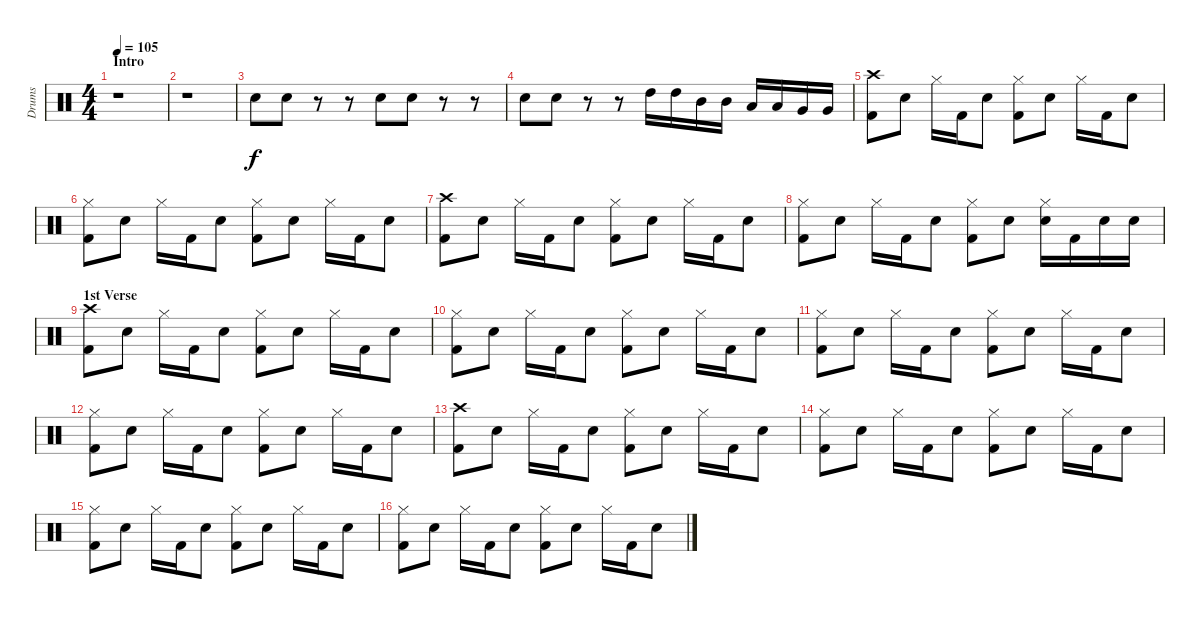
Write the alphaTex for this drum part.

\track ("Drums" "Drums") {instrument percussion}
\staff {score}
\articulation defaults
\ts (4 4)
\section ("" "Intro")
\tempo 105
\clef neutral
\ks c
r.1{dy f} |
r.1 |
"Snare (hit) 2".8 "Snare (hit) 2".8 r.8 r.8 "Snare (hit) 2".8 "Snare (hit) 2".8 r.8 r.8 |
"Snare (hit) 2".8 "Snare (hit) 2".8 r.8 r.8 "High Tom (hit)".16 "High Tom (hit)".16 "Mid Tom (hit)".16 "Mid Tom (hit)".16 "Low Tom (hit)".16 "Low Tom (hit)".16 "Very Low Tom (hit)".16 "Very Low Tom (hit)".16 |
("Crash high (hit)" "Kick (hit) 2").8 "Snare (hit) 2".8 "Hi-Hat (closed)".16 "Kick (hit) 2".16 "Snare (hit) 2".8 ("Hi-Hat (closed)" "Kick (hit) 2").8 "Snare (hit) 2".8 "Hi-Hat (closed)".16 "Kick (hit) 2".16 "Snare (hit) 2".8 |
("Hi-Hat (closed)" "Kick (hit) 2").8 "Snare (hit) 2".8 "Hi-Hat (closed)".16 "Kick (hit) 2".16 "Snare (hit) 2".8 ("Hi-Hat (closed)" "Kick (hit) 2").8 "Snare (hit) 2".8 "Hi-Hat (closed)".16 "Kick (hit) 2".16 "Snare (hit) 2".8 |
("Crash high (hit)" "Kick (hit) 2").8 "Snare (hit) 2".8 "Hi-Hat (closed)".16 "Kick (hit) 2".16 "Snare (hit) 2".8 ("Hi-Hat (closed)" "Kick (hit) 2").8 "Snare (hit) 2".8 "Hi-Hat (closed)".16 "Kick (hit) 2".16 "Snare (hit) 2".8 |
("Hi-Hat (closed)" "Kick (hit) 2").8 "Snare (hit) 2".8 "Hi-Hat (closed)".16 "Kick (hit) 2".16 "Snare (hit) 2".8 ("Hi-Hat (closed)" "Kick (hit) 2").8 "Snare (hit) 2".8 ("Hi-Hat (closed)" "Snare (hit) 2").16 "Kick (hit) 2".16 "Snare (hit) 2".16 "Snare (hit) 2".16 |
\section ("" "1st Verse ")
("Crash high (hit)" "Kick (hit) 2").8 "Snare (hit) 2".8 "Hi-Hat (closed)".16 "Kick (hit) 2".16 "Snare (hit) 2".8 ("Hi-Hat (closed)" "Kick (hit) 2").8 "Snare (hit) 2".8 "Hi-Hat (closed)".16 "Kick (hit) 2".16 "Snare (hit) 2".8 |
("Hi-Hat (closed)" "Kick (hit) 2").8 "Snare (hit) 2".8 "Hi-Hat (closed)".16 "Kick (hit) 2".16 "Snare (hit) 2".8 ("Hi-Hat (closed)" "Kick (hit) 2").8 "Snare (hit) 2".8 "Hi-Hat (closed)".16 "Kick (hit) 2".16 "Snare (hit) 2".8 |
("Hi-Hat (closed)" "Kick (hit) 2").8 "Snare (hit) 2".8 "Hi-Hat (closed)".16 "Kick (hit) 2".16 "Snare (hit) 2".8 ("Hi-Hat (closed)" "Kick (hit) 2").8 "Snare (hit) 2".8 "Hi-Hat (closed)".16 "Kick (hit) 2".16 "Snare (hit) 2".8 |
("Hi-Hat (closed)" "Kick (hit) 2").8 "Snare (hit) 2".8 "Hi-Hat (closed)".16 "Kick (hit) 2".16 "Snare (hit) 2".8 ("Hi-Hat (closed)" "Kick (hit) 2").8 "Snare (hit) 2".8 "Hi-Hat (closed)".16 "Kick (hit) 2".16 "Snare (hit) 2".8 |
("Crash high (hit)" "Kick (hit) 2").8 "Snare (hit) 2".8 "Hi-Hat (closed)".16 "Kick (hit) 2".16 "Snare (hit) 2".8 ("Hi-Hat (closed)" "Kick (hit) 2").8 "Snare (hit) 2".8 "Hi-Hat (closed)".16 "Kick (hit) 2".16 "Snare (hit) 2".8 |
("Hi-Hat (closed)" "Kick (hit) 2").8 "Snare (hit) 2".8 "Hi-Hat (closed)".16 "Kick (hit) 2".16 "Snare (hit) 2".8 ("Hi-Hat (closed)" "Kick (hit) 2").8 "Snare (hit) 2".8 "Hi-Hat (closed)".16 "Kick (hit) 2".16 "Snare (hit) 2".8 |
("Hi-Hat (closed)" "Kick (hit) 2").8 "Snare (hit) 2".8 "Hi-Hat (closed)".16 "Kick (hit) 2".16 "Snare (hit) 2".8 ("Hi-Hat (closed)" "Kick (hit) 2").8 "Snare (hit) 2".8 "Hi-Hat (closed)".16 "Kick (hit) 2".16 "Snare (hit) 2".8 |
("Hi-Hat (closed)" "Kick (hit) 2").8 "Snare (hit) 2".8 "Hi-Hat (closed)".16 "Kick (hit) 2".16 "Snare (hit) 2".8 ("Hi-Hat (closed)" "Kick (hit) 2").8 "Snare (hit) 2".8 "Hi-Hat (closed)".16 "Kick (hit) 2".16 "Snare (hit) 2".8
